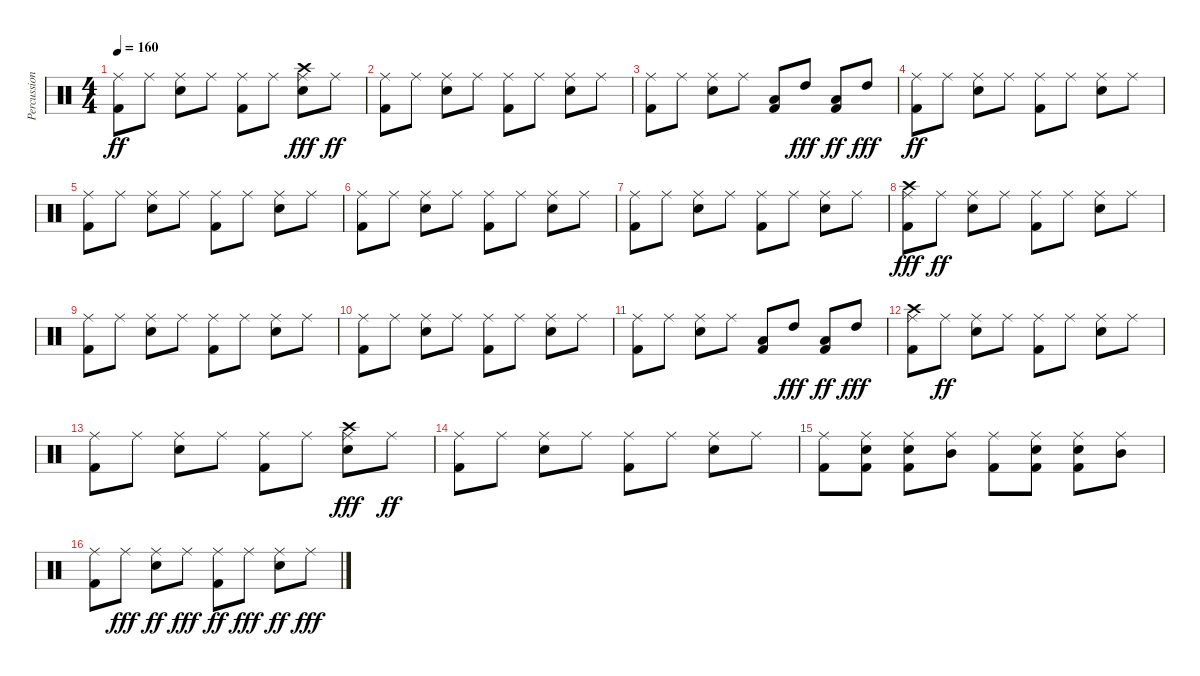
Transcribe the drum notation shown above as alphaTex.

\track ("Percussion" "Percussion") {instrument percussion}
\staff {score}
\articulation defaults
\ts (4 4)
\tempo 160
\clef neutral
\ks c
("Ride (middle)" "Kick (hit) 2").8{dy ff} "Ride (middle)".8 ("Ride (middle)" "Snare (hit) 2").8 "Ride (middle)".8 ("Ride (middle)" "Kick (hit) 2").8 "Ride (middle)".8 ("Ride (middle)" "Snare (hit) 2" "Crash high (hit)").8{dy fff} "Ride (middle)".8{dy ff} |
("Ride (middle)" "Kick (hit) 2").8 "Ride (middle)".8 ("Ride (middle)" "Snare (hit) 2").8 "Ride (middle)".8 ("Ride (middle)" "Kick (hit) 2").8 "Ride (middle)".8 ("Ride (middle)" "Snare (hit) 2").8 "Ride (middle)".8 |
("Ride (middle)" "Kick (hit) 2").8 "Ride (middle)".8 ("Ride (middle)" "Snare (hit) 2").8 "Ride (middle)".8 ("Low Floor Tom (hit)" "Kick (hit) 2").8 "High Tom (hit)".8{dy fff} ("Low Floor Tom (hit)" "Kick (hit) 2").8{dy ff} "High Tom (hit)".8{dy fff} |
("Ride (middle)" "Kick (hit) 2").8{dy ff} "Ride (middle)".8 ("Ride (middle)" "Snare (hit) 2").8 "Ride (middle)".8 ("Ride (middle)" "Kick (hit) 2").8 "Ride (middle)".8 ("Ride (middle)" "Snare (hit) 2").8 "Ride (middle)".8 |
("Ride (middle)" "Kick (hit) 2").8 "Ride (middle)".8 ("Ride (middle)" "Snare (hit) 2").8 "Ride (middle)".8 ("Ride (middle)" "Kick (hit) 2").8 "Ride (middle)".8 ("Ride (middle)" "Snare (hit) 2").8 "Ride (middle)".8 |
("Ride (middle)" "Kick (hit) 2").8 "Ride (middle)".8 ("Ride (middle)" "Snare (hit) 2").8 "Ride (middle)".8 ("Ride (middle)" "Kick (hit) 2").8 "Ride (middle)".8 ("Ride (middle)" "Snare (hit) 2").8 "Ride (middle)".8 |
("Ride (middle)" "Kick (hit) 2").8 "Ride (middle)".8 ("Ride (middle)" "Snare (hit) 2").8 "Ride (middle)".8 ("Ride (middle)" "Kick (hit) 2").8 "Ride (middle)".8 ("Ride (middle)" "Snare (hit) 2").8 "Ride (middle)".8 |
("Ride (middle)" "Kick (hit) 2" "Crash high (hit)").8{dy fff} "Ride (middle)".8{dy ff} ("Ride (middle)" "Snare (hit) 2").8 "Ride (middle)".8 ("Ride (middle)" "Kick (hit) 2").8 "Ride (middle)".8 ("Ride (middle)" "Snare (hit) 2").8 "Ride (middle)".8 |
("Ride (middle)" "Kick (hit) 2").8 "Ride (middle)".8 ("Ride (middle)" "Snare (hit) 2").8 "Ride (middle)".8 ("Ride (middle)" "Kick (hit) 2").8 "Ride (middle)".8 ("Ride (middle)" "Snare (hit) 2").8 "Ride (middle)".8 |
("Ride (middle)" "Kick (hit) 2").8 "Ride (middle)".8 ("Ride (middle)" "Snare (hit) 2").8 "Ride (middle)".8 ("Ride (middle)" "Kick (hit) 2").8 "Ride (middle)".8 ("Ride (middle)" "Snare (hit) 2").8 "Ride (middle)".8 |
("Ride (middle)" "Kick (hit) 2").8 "Ride (middle)".8 ("Ride (middle)" "Snare (hit) 2").8 "Ride (middle)".8 ("Low Floor Tom (hit)" "Kick (hit) 2").8 "High Tom (hit)".8{dy fff} ("Low Floor Tom (hit)" "Kick (hit) 2").8{dy ff} "High Tom (hit)".8{dy fff} |
("Ride (middle)" "Kick (hit) 2" "Crash high (hit)").8 "Ride (middle)".8{dy ff} ("Ride (middle)" "Snare (hit) 2").8 "Ride (middle)".8 ("Ride (middle)" "Kick (hit) 2").8 "Ride (middle)".8 ("Ride (middle)" "Snare (hit) 2").8 "Ride (middle)".8 |
("Ride (middle)" "Kick (hit) 2").8 "Ride (middle)".8 ("Ride (middle)" "Snare (hit) 2").8 "Ride (middle)".8 ("Ride (middle)" "Kick (hit) 2").8 "Ride (middle)".8 ("Ride (middle)" "Snare (hit) 2" "Crash high (hit)").8{dy fff} "Ride (middle)".8{dy ff} |
("Ride (middle)" "Kick (hit) 2").8 "Ride (middle)".8 ("Ride (middle)" "Snare (hit) 2").8 "Ride (middle)".8 ("Ride (middle)" "Kick (hit) 2").8 "Ride (middle)".8 ("Ride (middle)" "Snare (hit) 2").8 "Ride (middle)".8 |
("Ride (middle)" "Kick (hit) 2").8 ("Ride (middle)" "Kick (hit) 2" "Snare (hit) 2").8 ("Ride (middle)" "Kick (hit) 2" "Snare (hit) 2").8 ("Mid Tom (hit)" "Ride (middle)").8 ("Ride (middle)" "Kick (hit) 2").8 ("Ride (middle)" "Kick (hit) 2" "Snare (hit) 2").8 ("Ride (middle)" "Kick (hit) 2" "Snare (hit) 2").8 ("Mid Tom (hit)" "Ride (middle)").8 |
("Ride (middle)" "Kick (hit) 2").8 "Ride (middle)".8{dy fff} ("Ride (middle)" "Snare (hit) 2").8{dy ff} "Ride (middle)".8{dy fff} ("Ride (middle)" "Kick (hit) 2").8{dy ff} "Ride (middle)".8{dy fff} ("Ride (middle)" "Snare (hit) 2").8{dy ff} "Ride (middle)".8{dy fff}
